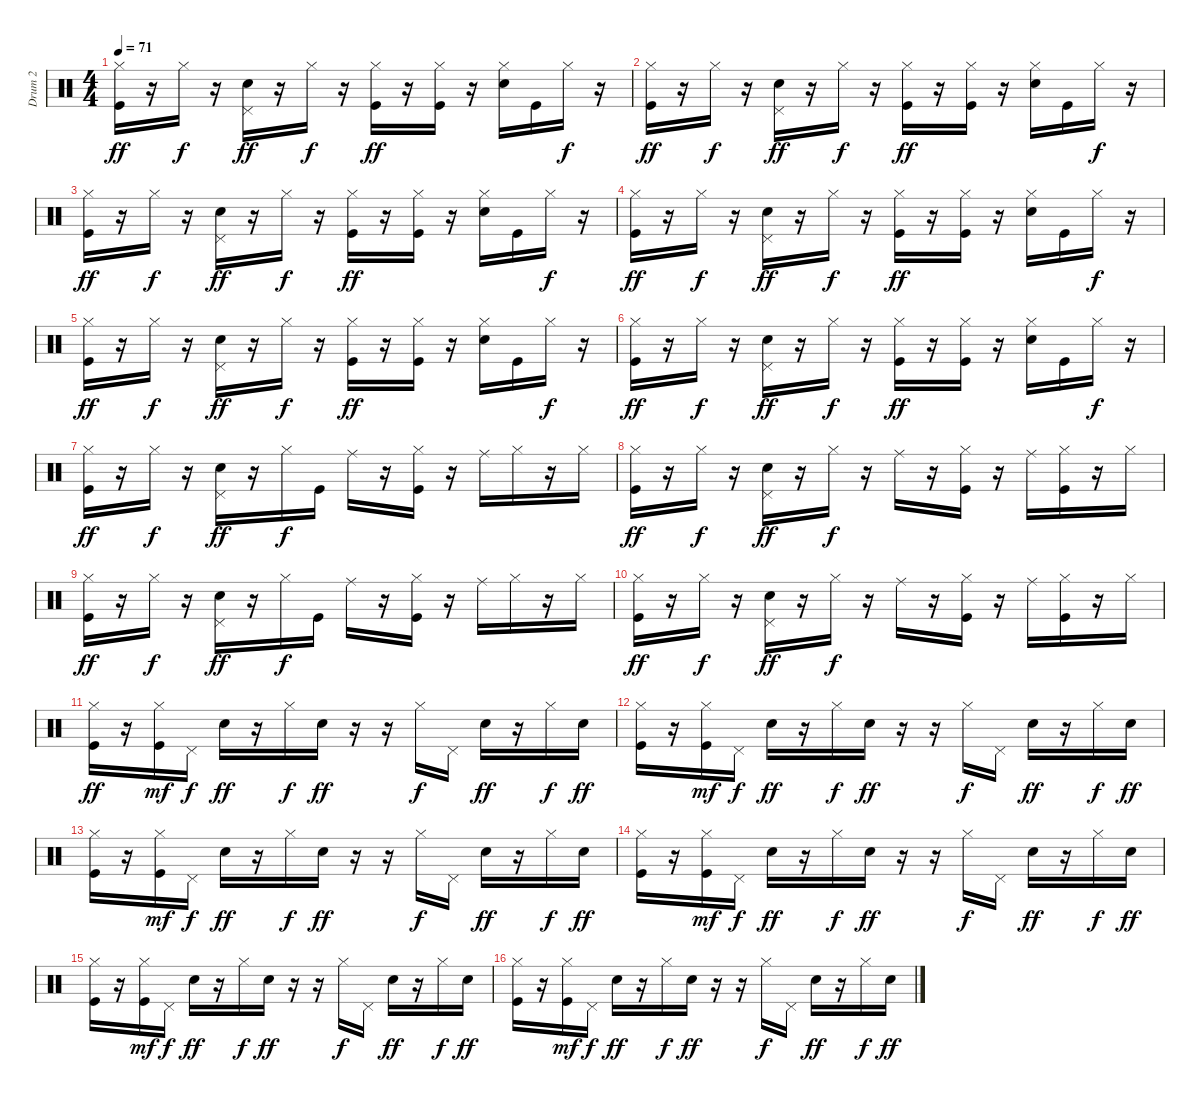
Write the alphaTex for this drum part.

\track ("Drum 2" "Drum 2") {instrument percussion}
\staff {score}
\articulation defaults
\ts (4 4)
\tempo 71
\clef neutral
\ks c
("Hi-Hat (closed)" "Kick (hit)").16{dy ff} r.16 "Hi-Hat (closed)".16{dy f} r.16 ("Pedal Hi-Hat (hit)" "Snare (hit) 2").16{dy ff} r.16 "Hi-Hat (closed)".16{dy f} r.16 ("Hi-Hat (closed)" "Kick (hit)").16{dy ff} r.16 ("Hi-Hat (closed)" "Kick (hit)").16 r.16 ("Hi-Hat (closed)" "Snare (hit) 2").16 "Kick (hit)".16 "Hi-Hat (closed)".16{dy f} r.16 |
("Hi-Hat (closed)" "Kick (hit)").16{dy ff} r.16 "Hi-Hat (closed)".16{dy f} r.16 ("Pedal Hi-Hat (hit)" "Snare (hit) 2").16{dy ff} r.16 "Hi-Hat (closed)".16{dy f} r.16 ("Hi-Hat (closed)" "Kick (hit)").16{dy ff} r.16 ("Hi-Hat (closed)" "Kick (hit)").16 r.16 ("Hi-Hat (closed)" "Snare (hit) 2").16 "Kick (hit)".16 "Hi-Hat (closed)".16{dy f} r.16 |
("Hi-Hat (closed)" "Kick (hit)").16{dy ff} r.16 "Hi-Hat (closed)".16{dy f} r.16 ("Pedal Hi-Hat (hit)" "Snare (hit) 2").16{dy ff} r.16 "Hi-Hat (closed)".16{dy f} r.16 ("Hi-Hat (closed)" "Kick (hit)").16{dy ff} r.16 ("Hi-Hat (closed)" "Kick (hit)").16 r.16 ("Hi-Hat (closed)" "Snare (hit) 2").16 "Kick (hit)".16 "Hi-Hat (closed)".16{dy f} r.16 |
("Hi-Hat (closed)" "Kick (hit)").16{dy ff} r.16 "Hi-Hat (closed)".16{dy f} r.16 ("Pedal Hi-Hat (hit)" "Snare (hit) 2").16{dy ff} r.16 "Hi-Hat (closed)".16{dy f} r.16 ("Hi-Hat (closed)" "Kick (hit)").16{dy ff} r.16 ("Hi-Hat (closed)" "Kick (hit)").16 r.16 ("Hi-Hat (closed)" "Snare (hit) 2").16 "Kick (hit)".16 "Hi-Hat (closed)".16{dy f} r.16 |
("Hi-Hat (closed)" "Kick (hit)").16{dy ff} r.16 "Hi-Hat (closed)".16{dy f} r.16 ("Pedal Hi-Hat (hit)" "Snare (hit) 2").16{dy ff} r.16 "Hi-Hat (closed)".16{dy f} r.16 ("Hi-Hat (closed)" "Kick (hit)").16{dy ff} r.16 ("Hi-Hat (closed)" "Kick (hit)").16 r.16 ("Hi-Hat (closed)" "Snare (hit) 2").16 "Kick (hit)".16 "Hi-Hat (closed)".16{dy f} r.16 |
("Hi-Hat (closed)" "Kick (hit)").16{dy ff} r.16 "Hi-Hat (closed)".16{dy f} r.16 ("Pedal Hi-Hat (hit)" "Snare (hit) 2").16{dy ff} r.16 "Hi-Hat (closed)".16{dy f} r.16 ("Hi-Hat (closed)" "Kick (hit)").16{dy ff} r.16 ("Hi-Hat (closed)" "Kick (hit)").16 r.16 ("Hi-Hat (closed)" "Snare (hit) 2").16 "Kick (hit)".16 "Hi-Hat (closed)".16{dy f} r.16 |
("Hi-Hat (closed)" "Kick (hit)").16{dy ff} r.16 "Hi-Hat (closed)".16{dy f} r.16 ("Pedal Hi-Hat (hit)" "Snare (hit) 2").16{dy ff} r.16 "Hi-Hat (closed)".16{dy f} "Kick (hit)".16 "Ride (middle)".16 r.16 ("Hi-Hat (closed)" "Kick (hit)").16 r.16 "Ride (middle)".16 "Hi-Hat (closed)".16 r.16 "Hi-Hat (closed)".16 |
("Hi-Hat (closed)" "Kick (hit)").16{dy ff} r.16 "Hi-Hat (closed)".16{dy f} r.16 ("Pedal Hi-Hat (hit)" "Snare (hit) 2").16{dy ff} r.16 "Hi-Hat (closed)".16{dy f} r.16 "Ride (middle)".16 r.16 ("Hi-Hat (closed)" "Kick (hit)").16 r.16 "Ride (middle)".16 ("Hi-Hat (closed)" "Kick (hit)").16 r.16 "Hi-Hat (closed)".16 |
("Hi-Hat (closed)" "Kick (hit)").16{dy ff} r.16 "Hi-Hat (closed)".16{dy f} r.16 ("Pedal Hi-Hat (hit)" "Snare (hit) 2").16{dy ff} r.16 "Hi-Hat (closed)".16{dy f} "Kick (hit)".16 "Ride (middle)".16 r.16 ("Hi-Hat (closed)" "Kick (hit)").16 r.16 "Ride (middle)".16 "Hi-Hat (closed)".16 r.16 "Hi-Hat (closed)".16 |
("Hi-Hat (closed)" "Kick (hit)").16{dy ff} r.16 "Hi-Hat (closed)".16{dy f} r.16 ("Pedal Hi-Hat (hit)" "Snare (hit) 2").16{dy ff} r.16 "Hi-Hat (closed)".16{dy f} r.16 "Ride (middle)".16 r.16 ("Hi-Hat (closed)" "Kick (hit)").16 r.16 "Ride (middle)".16 ("Hi-Hat (closed)" "Kick (hit)").16 r.16 "Hi-Hat (closed)".16 |
("Hi-Hat (closed)" "Kick (hit)").16{dy ff} r.16 ("Hi-Hat (closed)" "Kick (hit)").16{dy mf} "Pedal Hi-Hat (hit)".16{dy f} "Snare (hit) 2".16{dy ff} r.16 "Hi-Hat (closed)".16{dy f} "Snare (hit) 2".16{dy ff} r.16 r.16 "Hi-Hat (closed)".16{dy f} "Pedal Hi-Hat (hit)".16 "Snare (hit) 2".16{dy ff} r.16 "Hi-Hat (closed)".16{dy f} "Snare (hit) 2".16{dy ff} |
("Hi-Hat (closed)" "Kick (hit)").16 r.16 ("Hi-Hat (closed)" "Kick (hit)").16{dy mf} "Pedal Hi-Hat (hit)".16{dy f} "Snare (hit) 2".16{dy ff} r.16 "Hi-Hat (closed)".16{dy f} "Snare (hit) 2".16{dy ff} r.16 r.16 "Hi-Hat (closed)".16{dy f} "Pedal Hi-Hat (hit)".16 "Snare (hit) 2".16{dy ff} r.16 "Hi-Hat (closed)".16{dy f} "Snare (hit) 2".16{dy ff} |
("Hi-Hat (closed)" "Kick (hit)").16 r.16 ("Hi-Hat (closed)" "Kick (hit)").16{dy mf} "Pedal Hi-Hat (hit)".16{dy f} "Snare (hit) 2".16{dy ff} r.16 "Hi-Hat (closed)".16{dy f} "Snare (hit) 2".16{dy ff} r.16 r.16 "Hi-Hat (closed)".16{dy f} "Pedal Hi-Hat (hit)".16 "Snare (hit) 2".16{dy ff} r.16 "Hi-Hat (closed)".16{dy f} "Snare (hit) 2".16{dy ff} |
("Hi-Hat (closed)" "Kick (hit)").16 r.16 ("Hi-Hat (closed)" "Kick (hit)").16{dy mf} "Pedal Hi-Hat (hit)".16{dy f} "Snare (hit) 2".16{dy ff} r.16 "Hi-Hat (closed)".16{dy f} "Snare (hit) 2".16{dy ff} r.16 r.16 "Hi-Hat (closed)".16{dy f} "Pedal Hi-Hat (hit)".16 "Snare (hit) 2".16{dy ff} r.16 "Hi-Hat (closed)".16{dy f} "Snare (hit) 2".16{dy ff} |
("Hi-Hat (closed)" "Kick (hit)").16 r.16 ("Hi-Hat (closed)" "Kick (hit)").16{dy mf} "Pedal Hi-Hat (hit)".16{dy f} "Snare (hit) 2".16{dy ff} r.16 "Hi-Hat (closed)".16{dy f} "Snare (hit) 2".16{dy ff} r.16 r.16 "Hi-Hat (closed)".16{dy f} "Pedal Hi-Hat (hit)".16 "Snare (hit) 2".16{dy ff} r.16 "Hi-Hat (closed)".16{dy f} "Snare (hit) 2".16{dy ff} |
("Hi-Hat (closed)" "Kick (hit)").16 r.16 ("Hi-Hat (closed)" "Kick (hit)").16{dy mf} "Pedal Hi-Hat (hit)".16{dy f} "Snare (hit) 2".16{dy ff} r.16 "Hi-Hat (closed)".16{dy f} "Snare (hit) 2".16{dy ff} r.16 r.16 "Hi-Hat (closed)".16{dy f} "Pedal Hi-Hat (hit)".16 "Snare (hit) 2".16{dy ff} r.16 "Hi-Hat (closed)".16{dy f} "Snare (hit) 2".16{dy ff}
